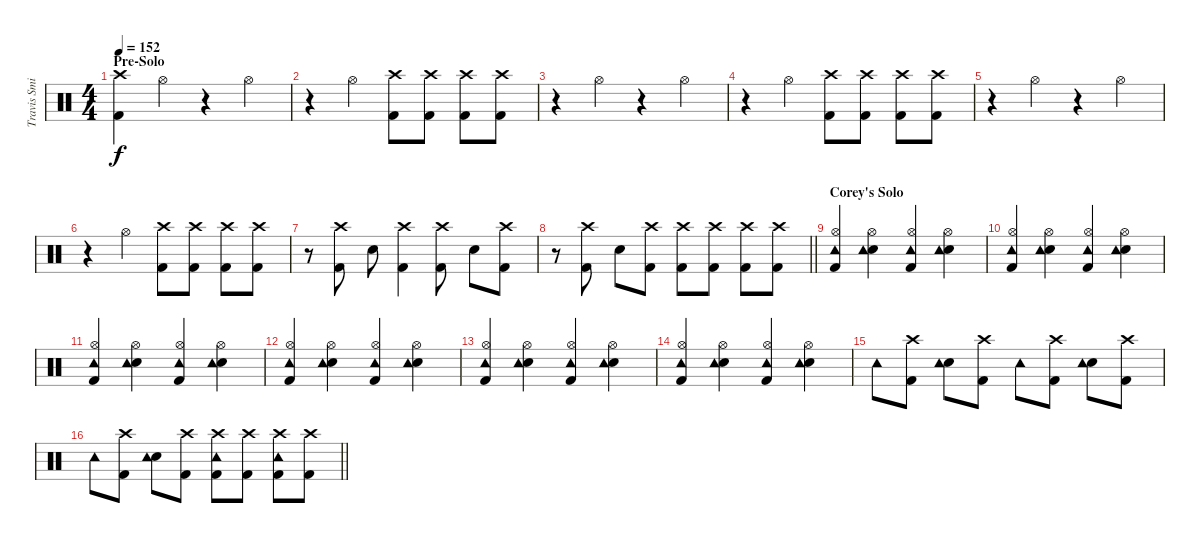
\track ("Travis Smith" "Travis Smi") {instrument percussion}
\staff {score}
\articulation defaults
\ts (4 4)
\section ("" "Pre-Solo")
\tempo 152
\clef neutral
\ks c
("Kick (hit) 2" "Crash high (hit)").4{dy f} "Hi-Hat (open)".4 r.4 "Hi-Hat (open)".4 |
r.4 "Hi-Hat (open)".4 ("Kick (hit) 2" "Crash high (hit)").8 ("Kick (hit) 2" "Crash high (hit)").8 ("Kick (hit) 2" "Crash high (hit)").8 ("Kick (hit) 2" "Crash high (hit)").8 |
r.4 "Hi-Hat (open)".4 r.4 "Hi-Hat (open)".4 |
r.4 "Hi-Hat (open)".4 ("Kick (hit) 2" "Crash high (hit)").8 ("Kick (hit) 2" "Crash high (hit)").8 ("Kick (hit) 2" "Crash high (hit)").8 ("Kick (hit) 2" "Crash high (hit)").8 |
r.4 "Hi-Hat (open)".4 r.4 "Hi-Hat (open)".4 |
r.4 "Hi-Hat (open)".4 ("Kick (hit) 2" "Crash high (hit)").8 ("Kick (hit) 2" "Crash high (hit)").8 ("Kick (hit) 2" "Crash high (hit)").8 ("Kick (hit) 2" "Crash high (hit)").8 |
r.8 ("Kick (hit) 2" "Crash high (hit)").8 "Snare (hit) 2".8 ("Kick (hit) 2" "Crash high (hit)").4 ("Kick (hit) 2" "Crash high (hit)").8 "Snare (hit) 2".8 ("Kick (hit) 2" "Crash high (hit)").8 |
\barLineRight lightlight
r.8 ("Kick (hit) 2" "Crash high (hit)").8 "Snare (hit) 2".8 ("Kick (hit) 2" "Crash high (hit)").8 ("Kick (hit) 2" "Crash high (hit)").8 ("Kick (hit) 2" "Crash high (hit)").8 ("Kick (hit) 2" "Crash high (hit)").8 ("Kick (hit) 2" "Crash high (hit)").8 |
\section ("" "Corey's Solo")
("Kick (hit) 2" "Hi-Hat (open)" "Tambourine (hit)").4 ("Snare (hit) 2" "Hi-Hat (open)" "Tambourine (hit)").4 ("Kick (hit) 2" "Hi-Hat (open)" "Tambourine (hit)").4 ("Snare (hit) 2" "Hi-Hat (open)" "Tambourine (hit)").4 |
("Kick (hit) 2" "Hi-Hat (open)" "Tambourine (hit)").4 ("Snare (hit) 2" "Hi-Hat (open)" "Tambourine (hit)").4 ("Kick (hit) 2" "Hi-Hat (open)" "Tambourine (hit)").4 ("Snare (hit) 2" "Hi-Hat (open)" "Tambourine (hit)").4 |
("Kick (hit) 2" "Hi-Hat (open)" "Tambourine (hit)").4 ("Snare (hit) 2" "Hi-Hat (open)" "Tambourine (hit)").4 ("Kick (hit) 2" "Hi-Hat (open)" "Tambourine (hit)").4 ("Snare (hit) 2" "Hi-Hat (open)" "Tambourine (hit)").4 |
("Kick (hit) 2" "Hi-Hat (open)" "Tambourine (hit)").4 ("Snare (hit) 2" "Hi-Hat (open)" "Tambourine (hit)").4 ("Kick (hit) 2" "Hi-Hat (open)" "Tambourine (hit)").4 ("Snare (hit) 2" "Hi-Hat (open)" "Tambourine (hit)").4 |
("Kick (hit) 2" "Hi-Hat (open)" "Tambourine (hit)").4 ("Snare (hit) 2" "Hi-Hat (open)" "Tambourine (hit)").4 ("Kick (hit) 2" "Hi-Hat (open)" "Tambourine (hit)").4 ("Snare (hit) 2" "Hi-Hat (open)" "Tambourine (hit)").4 |
("Kick (hit) 2" "Hi-Hat (open)" "Tambourine (hit)").4 ("Snare (hit) 2" "Hi-Hat (open)" "Tambourine (hit)").4 ("Kick (hit) 2" "Hi-Hat (open)" "Tambourine (hit)").4 ("Snare (hit) 2" "Hi-Hat (open)" "Tambourine (hit)").4 |
"Tambourine (hit)".8 ("Kick (hit) 2" "Crash high (hit)").8 ("Snare (hit) 2" "Tambourine (hit)").8 ("Kick (hit) 2" "Crash high (hit)").8 "Tambourine (hit)".8 ("Kick (hit) 2" "Crash high (hit)").8 ("Snare (hit) 2" "Tambourine (hit)").8 ("Kick (hit) 2" "Crash high (hit)").8 |
\barLineRight lightlight "Tambourine (hit)".8
("Kick (hit) 2" "Crash high (hit)").8 ("Snare (hit) 2" "Tambourine (hit)").8 ("Kick (hit) 2" "Crash high (hit)").8 ("Kick (hit) 2" "Crash high (hit)" "Tambourine (hit)").8 ("Kick (hit) 2" "Crash high (hit)").8 ("Kick (hit) 2" "Crash high (hit)" "Tambourine (hit)").8 ("Kick (hit) 2" "Crash high (hit)").8
